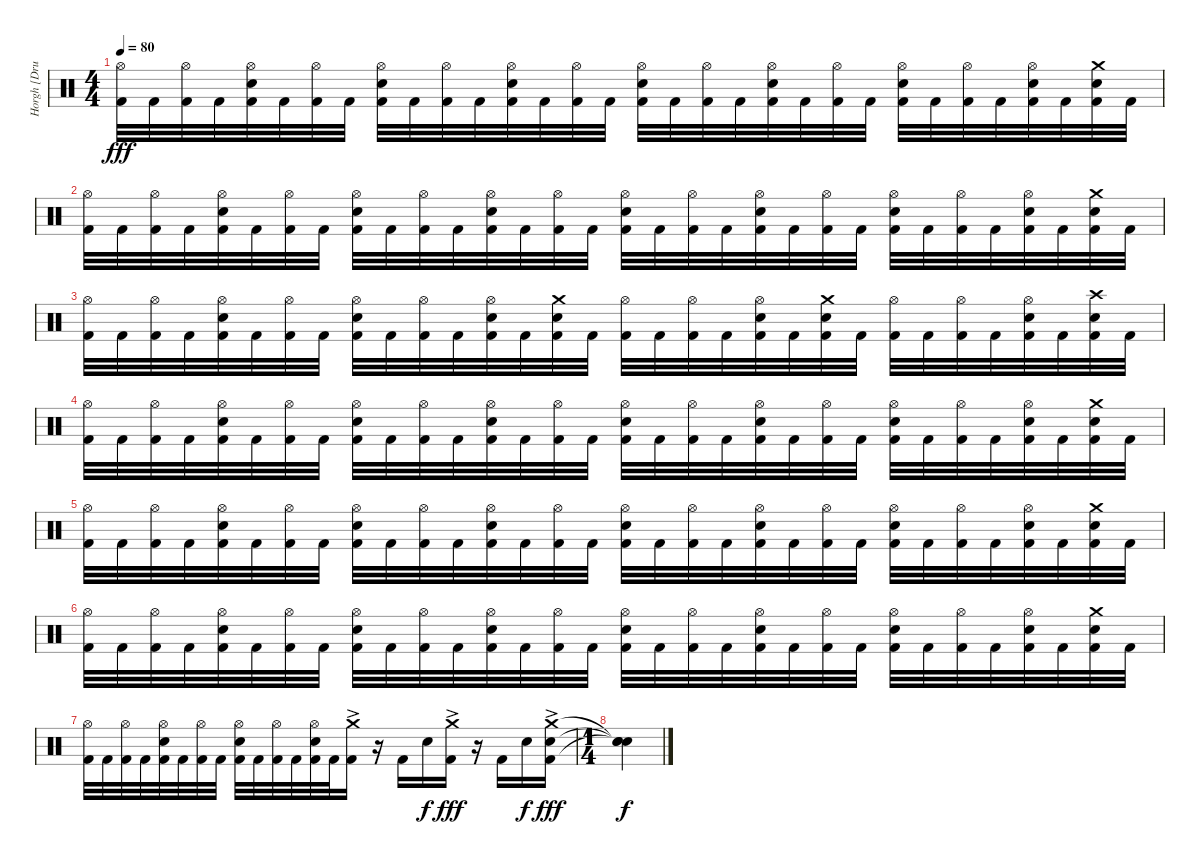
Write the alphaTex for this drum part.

\track ("Horgh [Drums]" "Horgh [Dru") {instrument percussion}
\staff {score}
\articulation defaults
\ts (4 4)
\tempo 80
\clef neutral
\ks c
("Hi-Hat (open)" "Kick (hit) 2").32{dy fff} "Kick (hit) 2".32 ("Hi-Hat (open)" "Kick (hit) 2").32 "Kick (hit) 2".32 ("Hi-Hat (open)" "Snare (hit) 2" "Kick (hit) 2").32 "Kick (hit) 2".32 ("Hi-Hat (open)" "Kick (hit) 2").32 "Kick (hit) 2".32 ("Hi-Hat (open)" "Snare (hit) 2" "Kick (hit) 2").32 "Kick (hit) 2".32 ("Hi-Hat (open)" "Kick (hit) 2").32 "Kick (hit) 2".32 ("Hi-Hat (open)" "Snare (hit) 2" "Kick (hit) 2").32 "Kick (hit) 2".32 ("Hi-Hat (open)" "Kick (hit) 2").32 "Kick (hit) 2".32 ("Hi-Hat (open)" "Snare (hit) 2" "Kick (hit) 2").32 "Kick (hit) 2".32 ("Hi-Hat (open)" "Kick (hit) 2").32 "Kick (hit) 2".32 ("Hi-Hat (open)" "Snare (hit) 2" "Kick (hit) 2").32 "Kick (hit) 2".32 ("Hi-Hat (open)" "Kick (hit) 2").32 "Kick (hit) 2".32 ("Hi-Hat (open)" "Snare (hit) 2" "Kick (hit) 2").32 "Kick (hit) 2".32 ("Hi-Hat (open)" "Kick (hit) 2").32 "Kick (hit) 2".32 ("Hi-Hat (open)" "Snare (hit) 2" "Kick (hit) 2").32 "Kick (hit) 2".32 ("Crash medium (hit)" "Snare (hit) 2" "Kick (hit) 2").32 "Kick (hit) 2".32 |
("Hi-Hat (open)" "Kick (hit) 2").32 "Kick (hit) 2".32 ("Hi-Hat (open)" "Kick (hit) 2").32 "Kick (hit) 2".32 ("Hi-Hat (open)" "Snare (hit) 2" "Kick (hit) 2").32 "Kick (hit) 2".32 ("Hi-Hat (open)" "Kick (hit) 2").32 "Kick (hit) 2".32 ("Hi-Hat (open)" "Snare (hit) 2" "Kick (hit) 2").32 "Kick (hit) 2".32 ("Hi-Hat (open)" "Kick (hit) 2").32 "Kick (hit) 2".32 ("Hi-Hat (open)" "Snare (hit) 2" "Kick (hit) 2").32 "Kick (hit) 2".32 ("Hi-Hat (open)" "Kick (hit) 2").32 "Kick (hit) 2".32 ("Hi-Hat (open)" "Snare (hit) 2" "Kick (hit) 2").32 "Kick (hit) 2".32 ("Hi-Hat (open)" "Kick (hit) 2").32 "Kick (hit) 2".32 ("Hi-Hat (open)" "Snare (hit) 2" "Kick (hit) 2").32 "Kick (hit) 2".32 ("Hi-Hat (open)" "Kick (hit) 2").32 "Kick (hit) 2".32 ("Hi-Hat (open)" "Snare (hit) 2" "Kick (hit) 2").32 "Kick (hit) 2".32 ("Hi-Hat (open)" "Kick (hit) 2").32 "Kick (hit) 2".32 ("Hi-Hat (open)" "Snare (hit) 2" "Kick (hit) 2").32 "Kick (hit) 2".32 ("Crash medium (hit)" "Snare (hit) 2" "Kick (hit) 2").32 "Kick (hit) 2".32 |
("Hi-Hat (open)" "Kick (hit) 2").32 "Kick (hit) 2".32 ("Hi-Hat (open)" "Kick (hit) 2").32 "Kick (hit) 2".32 ("Hi-Hat (open)" "Snare (hit) 2" "Kick (hit) 2").32 "Kick (hit) 2".32 ("Hi-Hat (open)" "Kick (hit) 2").32 "Kick (hit) 2".32 ("Hi-Hat (open)" "Snare (hit) 2" "Kick (hit) 2").32 "Kick (hit) 2".32 ("Hi-Hat (open)" "Kick (hit) 2").32 "Kick (hit) 2".32 ("Hi-Hat (open)" "Snare (hit) 2" "Kick (hit) 2").32 "Kick (hit) 2".32 ("Crash medium (hit)" "Snare (hit) 2" "Kick (hit) 2").32 "Kick (hit) 2".32 ("Hi-Hat (open)" "Kick (hit) 2").32 "Kick (hit) 2".32 ("Hi-Hat (open)" "Kick (hit) 2").32 "Kick (hit) 2".32 ("Hi-Hat (open)" "Snare (hit) 2" "Kick (hit) 2").32 "Kick (hit) 2".32 ("Crash medium (hit)" "Snare (hit) 2" "Kick (hit) 2").32 "Kick (hit) 2".32 ("Hi-Hat (open)" "Kick (hit) 2").32 "Kick (hit) 2".32 ("Hi-Hat (open)" "Kick (hit) 2").32 "Kick (hit) 2".32 ("Hi-Hat (open)" "Snare (hit) 2" "Kick (hit) 2").32 "Kick (hit) 2".32 ("Crash high (hit)" "Snare (hit) 2" "Kick (hit) 2").32 "Kick (hit) 2".32 |
("Hi-Hat (open)" "Kick (hit) 2").32 "Kick (hit) 2".32 ("Hi-Hat (open)" "Kick (hit) 2").32 "Kick (hit) 2".32 ("Hi-Hat (open)" "Snare (hit) 2" "Kick (hit) 2").32 "Kick (hit) 2".32 ("Hi-Hat (open)" "Kick (hit) 2").32 "Kick (hit) 2".32 ("Hi-Hat (open)" "Snare (hit) 2" "Kick (hit) 2").32 "Kick (hit) 2".32 ("Hi-Hat (open)" "Kick (hit) 2").32 "Kick (hit) 2".32 ("Hi-Hat (open)" "Snare (hit) 2" "Kick (hit) 2").32 "Kick (hit) 2".32 ("Hi-Hat (open)" "Kick (hit) 2").32 "Kick (hit) 2".32 ("Hi-Hat (open)" "Snare (hit) 2" "Kick (hit) 2").32 "Kick (hit) 2".32 ("Hi-Hat (open)" "Kick (hit) 2").32 "Kick (hit) 2".32 ("Hi-Hat (open)" "Snare (hit) 2" "Kick (hit) 2").32 "Kick (hit) 2".32 ("Hi-Hat (open)" "Kick (hit) 2").32 "Kick (hit) 2".32 ("Hi-Hat (open)" "Snare (hit) 2" "Kick (hit) 2").32 "Kick (hit) 2".32 ("Hi-Hat (open)" "Kick (hit) 2").32 "Kick (hit) 2".32 ("Hi-Hat (open)" "Snare (hit) 2" "Kick (hit) 2").32 "Kick (hit) 2".32 ("Crash medium (hit)" "Snare (hit) 2" "Kick (hit) 2").32 "Kick (hit) 2".32 |
("Hi-Hat (open)" "Kick (hit) 2").32 "Kick (hit) 2".32 ("Hi-Hat (open)" "Kick (hit) 2").32 "Kick (hit) 2".32 ("Hi-Hat (open)" "Snare (hit) 2" "Kick (hit) 2").32 "Kick (hit) 2".32 ("Hi-Hat (open)" "Kick (hit) 2").32 "Kick (hit) 2".32 ("Hi-Hat (open)" "Snare (hit) 2" "Kick (hit) 2").32 "Kick (hit) 2".32 ("Hi-Hat (open)" "Kick (hit) 2").32 "Kick (hit) 2".32 ("Hi-Hat (open)" "Snare (hit) 2" "Kick (hit) 2").32 "Kick (hit) 2".32 ("Hi-Hat (open)" "Kick (hit) 2").32 "Kick (hit) 2".32 ("Hi-Hat (open)" "Snare (hit) 2" "Kick (hit) 2").32 "Kick (hit) 2".32 ("Hi-Hat (open)" "Kick (hit) 2").32 "Kick (hit) 2".32 ("Hi-Hat (open)" "Snare (hit) 2" "Kick (hit) 2").32 "Kick (hit) 2".32 ("Hi-Hat (open)" "Kick (hit) 2").32 "Kick (hit) 2".32 ("Hi-Hat (open)" "Snare (hit) 2" "Kick (hit) 2").32 "Kick (hit) 2".32 ("Hi-Hat (open)" "Kick (hit) 2").32 "Kick (hit) 2".32 ("Hi-Hat (open)" "Snare (hit) 2" "Kick (hit) 2").32 "Kick (hit) 2".32 ("Crash medium (hit)" "Snare (hit) 2" "Kick (hit) 2").32 "Kick (hit) 2".32 |
("Hi-Hat (open)" "Kick (hit) 2").32 "Kick (hit) 2".32 ("Hi-Hat (open)" "Kick (hit) 2").32 "Kick (hit) 2".32 ("Hi-Hat (open)" "Snare (hit) 2" "Kick (hit) 2").32 "Kick (hit) 2".32 ("Hi-Hat (open)" "Kick (hit) 2").32 "Kick (hit) 2".32 ("Hi-Hat (open)" "Snare (hit) 2" "Kick (hit) 2").32 "Kick (hit) 2".32 ("Hi-Hat (open)" "Kick (hit) 2").32 "Kick (hit) 2".32 ("Hi-Hat (open)" "Snare (hit) 2" "Kick (hit) 2").32 "Kick (hit) 2".32 ("Hi-Hat (open)" "Kick (hit) 2").32 "Kick (hit) 2".32 ("Hi-Hat (open)" "Snare (hit) 2" "Kick (hit) 2").32 "Kick (hit) 2".32 ("Hi-Hat (open)" "Kick (hit) 2").32 "Kick (hit) 2".32 ("Hi-Hat (open)" "Snare (hit) 2" "Kick (hit) 2").32 "Kick (hit) 2".32 ("Hi-Hat (open)" "Kick (hit) 2").32 "Kick (hit) 2".32 ("Hi-Hat (open)" "Snare (hit) 2" "Kick (hit) 2").32 "Kick (hit) 2".32 ("Hi-Hat (open)" "Kick (hit) 2").32 "Kick (hit) 2".32 ("Hi-Hat (open)" "Snare (hit) 2" "Kick (hit) 2").32 "Kick (hit) 2".32 ("Crash medium (hit)" "Snare (hit) 2" "Kick (hit) 2").32 "Kick (hit) 2".32 |
("Hi-Hat (open)" "Kick (hit) 2").32 "Kick (hit) 2".32 ("Hi-Hat (open)" "Kick (hit) 2").32 "Kick (hit) 2".32 ("Hi-Hat (open)" "Snare (hit) 2" "Kick (hit) 2").32 "Kick (hit) 2".32 ("Hi-Hat (open)" "Kick (hit) 2").32 "Kick (hit) 2".32 ("Hi-Hat (open)" "Snare (hit) 2" "Kick (hit) 2").32 "Kick (hit) 2".32 ("Hi-Hat (open)" "Kick (hit) 2").32 "Kick (hit) 2".32 ("Hi-Hat (open)" "Snare (hit) 2" "Kick (hit) 2").32 "Kick (hit) 2".32 ("Crash medium (hit)"{ac} "Kick (hit) 2").16 r.16 "Kick (hit) 2".16 "Snare (hit) 2".16{dy f} ("Crash medium (hit)"{ac} "Kick (hit) 2").16{dy fff} r.16 "Kick (hit) 2".16 "Snare (hit) 2".16{dy f} ("Crash medium (hit)"{ac} "Snare (hit) 2" "Kick (hit) 2").16{dy fff} |
\ts (1 4)
("Snare (hit)"{t} "Snare (hit)"{t} "Snare (hit)"{t}).4{dy f}
